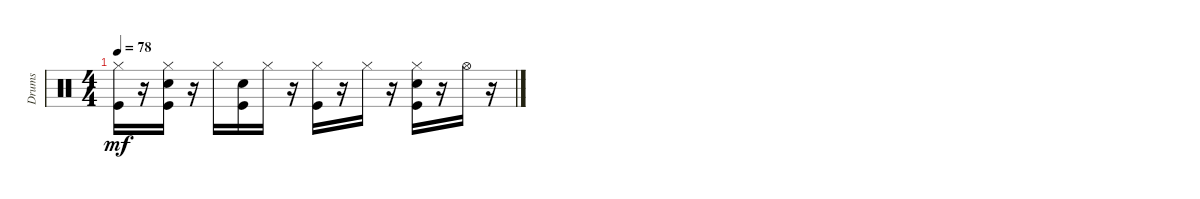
\track ("Drums               " "Drums     ") {instrument percussion}
\staff {score}
\articulation defaults
\ts (4 4)
\tempo 78
\clef neutral
\ks c
("Kick (hit)" "Hi-Hat (closed)").16{dy mf} r.16 ("Kick (hit)" "Snare (hit) 2" "Hi-Hat (closed)").16 r.16 "Hi-Hat (closed)".16 ("Kick (hit)" "Snare (hit) 2").16 "Hi-Hat (closed)".16 r.16 ("Kick (hit)" "Hi-Hat (closed)").16 r.16 "Hi-Hat (closed)".16 r.16 ("Kick (hit)" "Snare (hit) 2" "Hi-Hat (closed)").16 r.16 "Hi-Hat (open)".16 r.16
